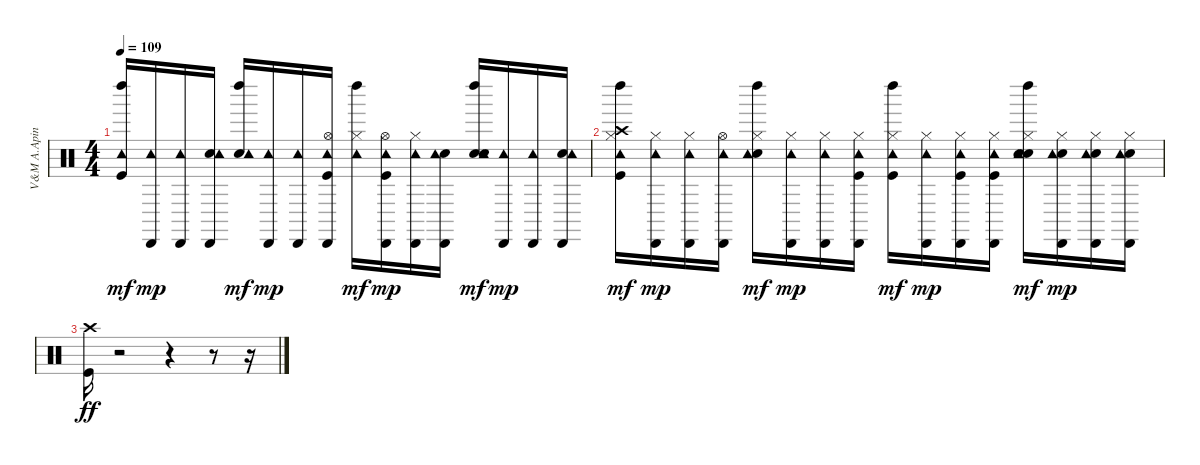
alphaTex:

\track ("V&M A.Apin" "V&M A.Apin") {instrument percussion}
\staff {score}
\articulation defaults
\ts (4 4)
\tempo 109
\clef neutral
\ks c
("Kick (hit)" "Tambourine (hit)" "Left Maraca (hit)").16{dy mf} ("Tambourine (hit)" "Cabasa (hit)").16{dy mp} ("Tambourine (hit)" "Cabasa (hit)").16 ("Snare (hit) 2" "Tambourine (hit)" "Cabasa (hit)").16 ("Snare (hit) 2" "Tambourine (hit)" "Left Maraca (hit)").16{dy mf} ("Tambourine (hit)" "Cabasa (hit)").16{dy mp} ("Tambourine (hit)" "Cabasa (hit)").16 ("Kick (hit)" "Hi-Hat (open)" "Tambourine (hit)" "Cabasa (hit)").16 ("Hi-Hat (closed)" "Tambourine (hit)" "Left Maraca (hit)").16{dy mf} ("Kick (hit)" "Hi-Hat (open)" "Tambourine (hit)" "Cabasa (hit)").16{dy mp} ("Hi-Hat (closed)" "Tambourine (hit)" "Cabasa (hit)").16 ("Snare (hit) 2" "Tambourine (hit)" "Cabasa (hit)").16 ("Snare (hit) 2" "Tambourine (hit)" "Hand Clap (hit)" "Left Maraca (hit)").16{dy mf} ("Tambourine (hit)" "Cabasa (hit)").16{dy mp} ("Tambourine (hit)" "Cabasa (hit)").16 ("Snare (hit) 2" "Tambourine (hit)" "Cabasa (hit)").16 |
("Kick (hit)" "Hi-Hat (closed)" "Crash high (hit)" "Tambourine (hit)" "Left Maraca (hit)").16{dy mf} ("Hi-Hat (closed)" "Tambourine (hit)" "Cabasa (hit)").16{dy mp} ("Hi-Hat (closed)" "Tambourine (hit)" "Cabasa (hit)").16 ("Hi-Hat (open)" "Tambourine (hit)" "Cabasa (hit)").16 ("Snare (hit) 2" "Hi-Hat (closed)" "Tambourine (hit)" "Left Maraca (hit)").16{dy mf} ("Hi-Hat (closed)" "Tambourine (hit)" "Cabasa (hit)").16{dy mp} ("Hi-Hat (closed)" "Tambourine (hit)" "Cabasa (hit)").16 ("Kick (hit)" "Hi-Hat (closed)" "Tambourine (hit)" "Cabasa (hit)").16 ("Kick (hit)" "Hi-Hat (closed)" "Tambourine (hit)" "Left Maraca (hit)").16{dy mf} ("Hi-Hat (closed)" "Tambourine (hit)" "Cabasa (hit)").16{dy mp} ("Kick (hit)" "Hi-Hat (closed)" "Tambourine (hit)" "Cabasa (hit)").16 ("Kick (hit)" "Hi-Hat (closed)" "Tambourine (hit)" "Cabasa (hit)").16 ("Snare (hit) 2" "Hi-Hat (closed)" "Tambourine (hit)" "Hand Clap (hit)" "Left Maraca (hit)").16{dy mf} ("Snare (hit) 2" "Hi-Hat (closed)" "Tambourine (hit)" "Cabasa (hit)").16{dy mp} ("Snare (hit) 2" "Hi-Hat (closed)" "Tambourine (hit)" "Cabasa (hit)").16 ("Snare (hit) 2" "Hi-Hat (closed)" "Tambourine (hit)" "Cabasa (hit)").16 |
("Kick (hit)" "Crash high (hit)").16{dy ff} r.2 r.4 r.8 r.16
